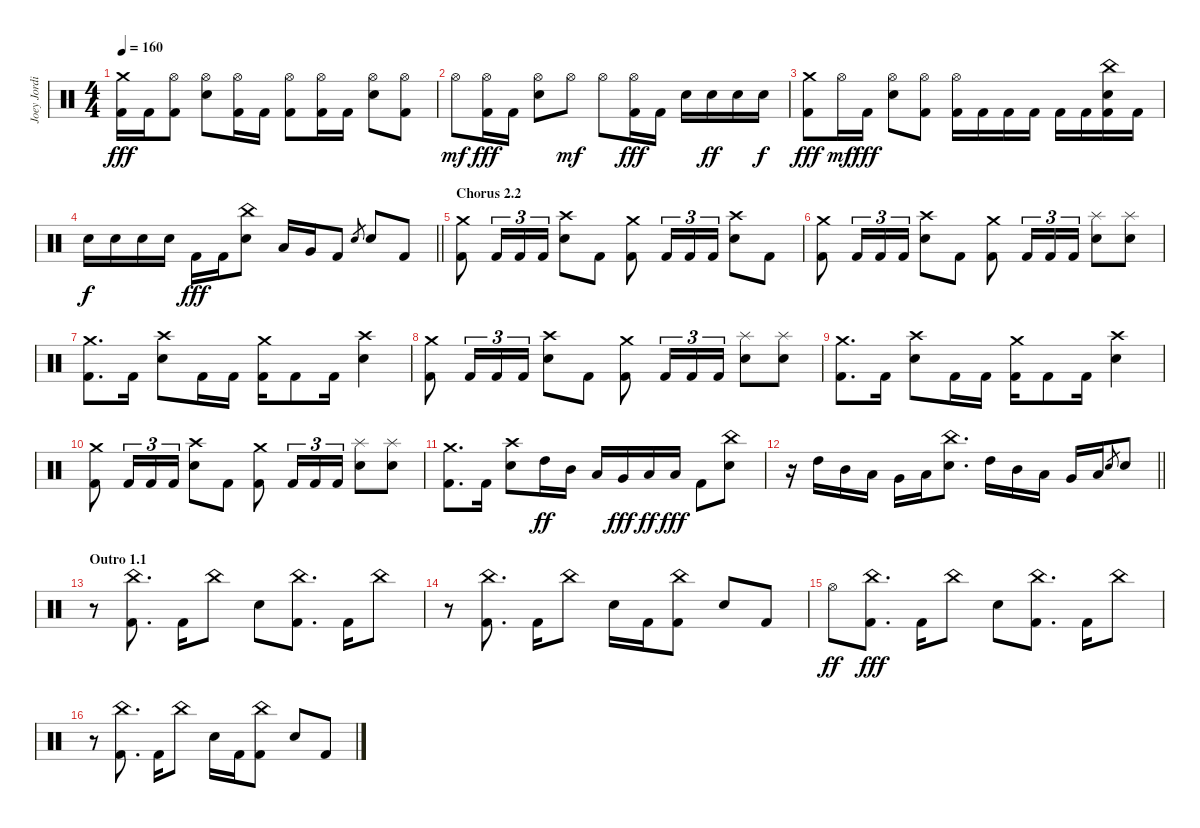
\track ("Joey Jordison" "Joey Jordi") {instrument percussion}
\staff {score}
\articulation defaults
\ts (4 4)
\tempo 160
\clef neutral
\ks c
("Crash medium (hit)" "Kick (hit) 2").16{dy fff} "Kick (hit) 2".16 ("Hi-Hat (open)" "Kick (hit) 2").8 ("Hi-Hat (open)" "Electric Snare (hit)").8 ("Hi-Hat (open)" "Kick (hit) 2").16 "Kick (hit) 2".16 ("Hi-Hat (open)" "Kick (hit) 2").8 ("Hi-Hat (open)" "Kick (hit) 2").16 "Kick (hit) 2".16 ("Hi-Hat (open)" "Electric Snare (hit)").8 ("Hi-Hat (open)" "Kick (hit) 2").8 |
"Hi-Hat (open)".8{dy mf} ("Hi-Hat (open)" "Kick (hit) 2").16{dy fff} "Kick (hit) 2".16 ("Hi-Hat (open)" "Electric Snare (hit)").8 "Hi-Hat (open)".8{dy mf} "Hi-Hat (open)".8 ("Hi-Hat (open)" "Kick (hit) 2").16{dy fff} "Kick (hit) 2".16 "Electric Snare (hit)".16 "Electric Snare (hit)".16{dy ff} "Electric Snare (hit)".16 "Electric Snare (hit)".16{dy f} |
("Crash medium (hit)" "Kick (hit) 2").8{dy fff} "Hi-Hat (open)".16{dy mf} "Kick (hit) 2".16{dy fff} ("Hi-Hat (open)" "Electric Snare (hit)").8 ("Hi-Hat (open)" "Kick (hit) 2").8 ("Hi-Hat (open)" "Kick (hit) 2").16 "Kick (hit) 2".16 "Kick (hit) 2".16 "Kick (hit) 2".16 "Kick (hit) 2".16 "Kick (hit) 2".16 ("China (hit)" "Electric Snare (hit)" "Kick (hit) 2").16 "Kick (hit) 2".16 |
\barLineRight lightlight "Electric Snare (hit)".16{dy f} "Electric Snare (hit)".16 "Electric Snare (hit)".16 "Electric Snare (hit)".16 "Kick (hit) 2".16{dy fff} "Kick (hit) 2".16
("China (hit)" "Electric Snare (hit)").8 "Low Tom (hit)".16 "Very Low Tom (hit)".16 "Kick (hit) 2".8 "Electric Snare (hit)".8{gr} "Electric Snare (hit)".8 "Kick (hit) 2".8 |
\section ("" "Chorus 2.2")
("Crash medium (hit)" "Kick (hit) 2").8 "Kick (hit) 2".16{tu (3 2)} "Kick (hit) 2".16{tu (3 2)} "Kick (hit) 2".16{tu (3 2)} ("Crash high (hit)" "Electric Snare (hit)").8 "Kick (hit) 2".8 ("Crash medium (hit)" "Kick (hit) 2").8 "Kick (hit) 2".16{tu (3 2)} "Kick (hit) 2".16{tu (3 2)} "Kick (hit) 2".16{tu (3 2)} ("Crash high (hit)" "Electric Snare (hit)").8 "Kick (hit) 2".8 |
("Crash medium (hit)" "Kick (hit) 2").8 "Kick (hit) 2".16{tu (3 2)} "Kick (hit) 2".16{tu (3 2)} "Kick (hit) 2".16{tu (3 2)} ("Crash high (hit)" "Electric Snare (hit)").8 "Kick (hit) 2".8 ("Crash medium (hit)" "Kick (hit) 2").8 "Kick (hit) 2".16{tu (3 2)} "Kick (hit) 2".16{tu (3 2)} "Kick (hit) 2".16{tu (3 2)} ("Splash (hit)" "Electric Snare (hit)").8 ("Splash (hit)" "Electric Snare (hit)").8 |
("Crash medium (hit)" "Kick (hit) 2").8{d} "Kick (hit) 2".16 ("Crash high (hit)" "Electric Snare (hit)").8 "Kick (hit) 2".16 "Kick (hit) 2".16 ("Crash medium (hit)" "Kick (hit) 2").16 "Kick (hit) 2".8 "Kick (hit) 2".16 ("Crash high (hit)" "Electric Snare (hit)").4 |
("Crash medium (hit)" "Kick (hit) 2").8 "Kick (hit) 2".16{tu (3 2)} "Kick (hit) 2".16{tu (3 2)} "Kick (hit) 2".16{tu (3 2)} ("Crash high (hit)" "Electric Snare (hit)").8 "Kick (hit) 2".8 ("Crash medium (hit)" "Kick (hit) 2").8 "Kick (hit) 2".16{tu (3 2)} "Kick (hit) 2".16{tu (3 2)} "Kick (hit) 2".16{tu (3 2)} ("Splash (hit)" "Electric Snare (hit)").8 ("Splash (hit)" "Electric Snare (hit)").8 |
("Crash medium (hit)" "Kick (hit) 2").8{d} "Kick (hit) 2".16 ("Crash high (hit)" "Electric Snare (hit)").8 "Kick (hit) 2".16 "Kick (hit) 2".16 ("Crash medium (hit)" "Kick (hit) 2").16 "Kick (hit) 2".8 "Kick (hit) 2".16 ("Crash high (hit)" "Electric Snare (hit)").4 |
("Crash medium (hit)" "Kick (hit) 2").8 "Kick (hit) 2".16{tu (3 2)} "Kick (hit) 2".16{tu (3 2)} "Kick (hit) 2".16{tu (3 2)} ("Crash high (hit)" "Electric Snare (hit)").8 "Kick (hit) 2".8 ("Crash medium (hit)" "Kick (hit) 2").8 "Kick (hit) 2".16{tu (3 2)} "Kick (hit) 2".16{tu (3 2)} "Kick (hit) 2".16{tu (3 2)} ("Splash (hit)" "Electric Snare (hit)").8 ("Splash (hit)" "Electric Snare (hit)").8 |
("Crash medium (hit)" "Kick (hit) 2").8{d} "Kick (hit) 2".16 ("Crash high (hit)" "Electric Snare (hit)").8 "High Tom (hit)".16{dy ff} "Mid Tom (hit)".16 "Low Tom (hit)".16 "Very Low Tom (hit)".16{dy fff} "Low Floor Tom (hit)".16{dy ff} "Low Floor Tom (hit)".16{dy fff} "Kick (hit) 2".8 ("China (hit)" "Electric Snare (hit)").8 |
\barLineRight lightlight
r.16 "High Tom (hit)".16 "Mid Tom (hit)".16 "Low Tom (hit)".16 "Very Low Tom (hit)".16 "Low Floor Tom (hit)".16 ("China (hit)" "Electric Snare (hit)").8{d} "High Tom (hit)".16 "Mid Tom (hit)".16 "Low Tom (hit)".16 "Very Low Tom (hit)".16 "Low Floor Tom (hit)".16 "Electric Snare (hit)".8{gr} "Electric Snare (hit)".8 |
\section ("" "Outro 1.1")
r.8 ("China (hit)" "Kick (hit) 2").8{d} "Kick (hit) 2".16 "China (hit)".8 "Electric Snare (hit)".8 ("China (hit)" "Kick (hit) 2").8{d} "Kick (hit) 2".16 "China (hit)".8 |
r.8 ("China (hit)" "Kick (hit) 2").8{d} "Kick (hit) 2".16 "China (hit)".8 "Electric Snare (hit)".16 "Kick (hit) 2".16 ("China (hit)" "Kick (hit) 2").8 "Electric Snare (hit)".8 "Kick (hit) 2".8 |
"Hi-Hat (open)".8{dy ff} ("China (hit)" "Kick (hit) 2").8{d dy fff} "Kick (hit) 2".16 "China (hit)".8 "Electric Snare (hit)".8 ("China (hit)" "Kick (hit) 2").8{d} "Kick (hit) 2".16 "China (hit)".8 |
r.8 ("China (hit)" "Kick (hit) 2").8{d} "Kick (hit) 2".16 "China (hit)".8 "Electric Snare (hit)".16 "Kick (hit) 2".16 ("China (hit)" "Kick (hit) 2").8 "Electric Snare (hit)".8 "Kick (hit) 2".8
